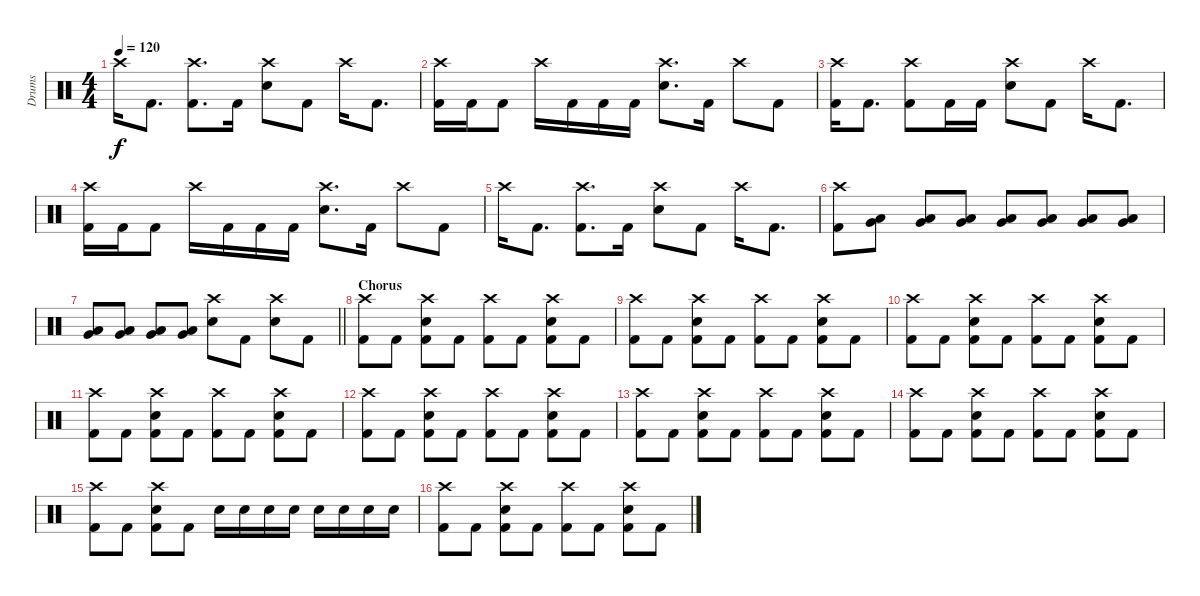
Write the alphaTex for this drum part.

\track ("Drums" "Drums") {instrument percussion}
\staff {score}
\articulation defaults
\ts (4 4)
\tempo 120
\clef neutral
\ks c "Crash high (hit)".16{dy f} "Kick (hit) 2".8{d}
("Crash high (hit)" "Kick (hit) 2").8{d} "Kick (hit) 2".16 ("Crash high (hit)" "Electric Snare (hit)").8 "Kick (hit) 2".8 "Crash high (hit)".16 "Kick (hit) 2".8{d} |
("Crash high (hit)" "Kick (hit) 2").16 "Kick (hit) 2".16 "Kick (hit) 2".8 "Crash high (hit)".16 "Kick (hit) 2".16 "Kick (hit) 2".16 "Kick (hit) 2".16 ("Crash high (hit)" "Electric Snare (hit)").8{d} "Kick (hit) 2".16 "Crash high (hit)".8 "Kick (hit) 2".8 |
("Crash high (hit)" "Kick (hit) 2").16 "Kick (hit) 2".8{d} ("Crash high (hit)" "Kick (hit) 2").8 "Kick (hit) 2".16 "Kick (hit) 2".16 ("Crash high (hit)" "Electric Snare (hit)").8 "Kick (hit) 2".8 "Crash high (hit)".16 "Kick (hit) 2".8{d} |
("Crash high (hit)" "Kick (hit) 2").16 "Kick (hit) 2".16 "Kick (hit) 2".8 "Crash high (hit)".16 "Kick (hit) 2".16 "Kick (hit) 2".16 "Kick (hit) 2".16 ("Crash high (hit)" "Electric Snare (hit)").8{d} "Kick (hit) 2".16 "Crash high (hit)".8 "Kick (hit) 2".8 |
"Crash high (hit)".16 "Kick (hit) 2".8{d} ("Crash high (hit)" "Kick (hit) 2").8{d} "Kick (hit) 2".16 ("Crash high (hit)" "Electric Snare (hit)").8 "Kick (hit) 2".8 "Crash high (hit)".16 "Kick (hit) 2".8{d} |
("Crash high (hit)" "Kick (hit) 2").8 ("Very Low Tom (hit)" "Low Floor Tom (hit)").8{volume 0} ("Very Low Tom (hit)" "Low Floor Tom (hit)").8{volume 12} ("Very Low Tom (hit)" "Low Floor Tom (hit)").8 ("Very Low Tom (hit)" "Low Floor Tom (hit)").8 ("Very Low Tom (hit)" "Low Floor Tom (hit)").8 ("Very Low Tom (hit)" "Low Floor Tom (hit)").8 ("Very Low Tom (hit)" "Low Floor Tom (hit)").8 |
\barLineRight lightlight
("Very Low Tom (hit)" "Low Floor Tom (hit)").8 ("Very Low Tom (hit)" "Low Floor Tom (hit)").8 ("Very Low Tom (hit)" "Low Floor Tom (hit)").8 ("Very Low Tom (hit)" "Low Floor Tom (hit)").8 ("Crash high (hit)" "Electric Snare (hit)").8 "Kick (hit) 2".8 ("Crash high (hit)" "Electric Snare (hit)").8 "Kick (hit) 2".8 |
\section ("" "Chorus")
("Crash high (hit)" "Kick (hit) 2").8 "Kick (hit) 2".8 ("Crash high (hit)" "Electric Snare (hit)" "Kick (hit) 2").8 "Kick (hit) 2".8 ("Crash high (hit)" "Kick (hit) 2").8 "Kick (hit) 2".8 ("Crash high (hit)" "Electric Snare (hit)" "Kick (hit) 2").8 "Kick (hit) 2".8 |
("Crash high (hit)" "Kick (hit) 2").8 "Kick (hit) 2".8 ("Crash high (hit)" "Electric Snare (hit)" "Kick (hit) 2").8 "Kick (hit) 2".8 ("Crash high (hit)" "Kick (hit) 2").8 "Kick (hit) 2".8 ("Crash high (hit)" "Electric Snare (hit)" "Kick (hit) 2").8 "Kick (hit) 2".8 |
("Crash high (hit)" "Kick (hit) 2").8 "Kick (hit) 2".8 ("Crash high (hit)" "Electric Snare (hit)" "Kick (hit) 2").8 "Kick (hit) 2".8 ("Crash high (hit)" "Kick (hit) 2").8 "Kick (hit) 2".8 ("Crash high (hit)" "Electric Snare (hit)" "Kick (hit) 2").8 "Kick (hit) 2".8 |
("Crash high (hit)" "Kick (hit) 2").8 "Kick (hit) 2".8 ("Crash high (hit)" "Electric Snare (hit)" "Kick (hit) 2").8 "Kick (hit) 2".8 ("Crash high (hit)" "Kick (hit) 2").8 "Kick (hit) 2".8 ("Crash high (hit)" "Electric Snare (hit)" "Kick (hit) 2").8 "Kick (hit) 2".8 |
("Crash high (hit)" "Kick (hit) 2").8 "Kick (hit) 2".8 ("Crash high (hit)" "Electric Snare (hit)" "Kick (hit) 2").8 "Kick (hit) 2".8 ("Crash high (hit)" "Kick (hit) 2").8 "Kick (hit) 2".8 ("Crash high (hit)" "Electric Snare (hit)" "Kick (hit) 2").8 "Kick (hit) 2".8 |
("Crash high (hit)" "Kick (hit) 2").8 "Kick (hit) 2".8 ("Crash high (hit)" "Electric Snare (hit)" "Kick (hit) 2").8 "Kick (hit) 2".8 ("Crash high (hit)" "Kick (hit) 2").8 "Kick (hit) 2".8 ("Crash high (hit)" "Electric Snare (hit)" "Kick (hit) 2").8 "Kick (hit) 2".8 |
("Crash high (hit)" "Kick (hit) 2").8 "Kick (hit) 2".8 ("Crash high (hit)" "Electric Snare (hit)" "Kick (hit) 2").8 "Kick (hit) 2".8 ("Crash high (hit)" "Kick (hit) 2").8 "Kick (hit) 2".8 ("Crash high (hit)" "Electric Snare (hit)" "Kick (hit) 2").8 "Kick (hit) 2".8 |
("Crash high (hit)" "Kick (hit) 2").8 "Kick (hit) 2".8 ("Crash high (hit)" "Electric Snare (hit)" "Kick (hit) 2").8 "Kick (hit) 2".8 "Electric Snare (hit)".16 "Electric Snare (hit)".16 "Electric Snare (hit)".16 "Electric Snare (hit)".16 "Electric Snare (hit)".16 "Electric Snare (hit)".16 "Electric Snare (hit)".16 "Electric Snare (hit)".16 |
("Crash high (hit)" "Kick (hit) 2").8 "Kick (hit) 2".8 ("Crash high (hit)" "Electric Snare (hit)" "Kick (hit) 2").8 "Kick (hit) 2".8 ("Crash high (hit)" "Kick (hit) 2").8 "Kick (hit) 2".8 ("Crash high (hit)" "Electric Snare (hit)" "Kick (hit) 2").8 "Kick (hit) 2".8
